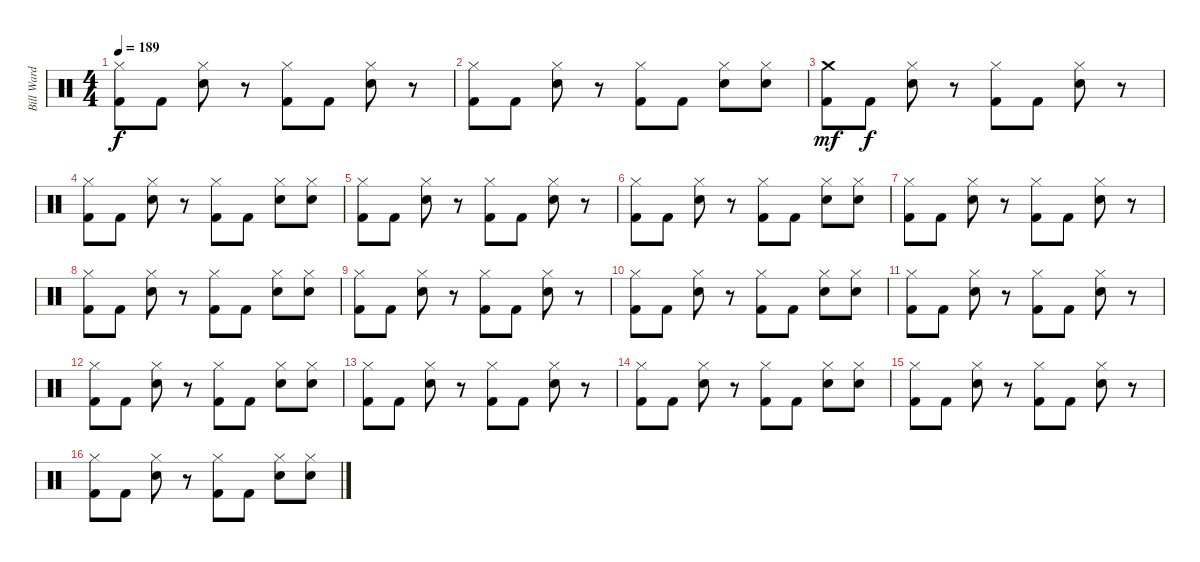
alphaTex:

\track ("Bill Ward" "Bill Ward") {instrument percussion}
\staff {score}
\articulation defaults
\ts (4 4)
\tempo 189
\clef neutral
\ks c
("Hi-Hat (closed)" "Kick (hit) 2").8{dy f} "Kick (hit) 2".8 ("Hi-Hat (closed)" "Electric Snare (hit)").8 r.8 ("Hi-Hat (closed)" "Kick (hit) 2").8 "Kick (hit) 2".8 ("Hi-Hat (closed)" "Electric Snare (hit)").8 r.8 |
("Hi-Hat (closed)" "Kick (hit) 2").8 "Kick (hit) 2".8 ("Hi-Hat (closed)" "Electric Snare (hit)").8 r.8 ("Hi-Hat (closed)" "Kick (hit) 2").8 "Kick (hit) 2".8 ("Hi-Hat (closed)" "Electric Snare (hit)").8 ("Electric Snare (hit)" "Hi-Hat (closed)").8 |
("Kick (hit) 2" "Crash medium (hit)").8{dy mf} "Kick (hit) 2".8{dy f} ("Hi-Hat (closed)" "Electric Snare (hit)").8 r.8 ("Hi-Hat (closed)" "Kick (hit) 2").8 "Kick (hit) 2".8 ("Hi-Hat (closed)" "Electric Snare (hit)").8 r.8 |
("Kick (hit) 2" "Hi-Hat (closed)").8 "Kick (hit) 2".8 ("Electric Snare (hit)" "Hi-Hat (closed)").8 r.8 ("Hi-Hat (closed)" "Kick (hit) 2").8 "Kick (hit) 2".8 ("Electric Snare (hit)" "Hi-Hat (closed)").8 ("Hi-Hat (closed)" "Electric Snare (hit)").8 |
("Hi-Hat (closed)" "Kick (hit) 2").8 "Kick (hit) 2".8 ("Hi-Hat (closed)" "Electric Snare (hit)").8 r.8 ("Hi-Hat (closed)" "Kick (hit) 2").8 "Kick (hit) 2".8 ("Hi-Hat (closed)" "Electric Snare (hit)").8 r.8 |
("Hi-Hat (closed)" "Kick (hit) 2").8 "Kick (hit) 2".8 ("Hi-Hat (closed)" "Electric Snare (hit)").8 r.8 ("Hi-Hat (closed)" "Kick (hit) 2").8 "Kick (hit) 2".8 ("Hi-Hat (closed)" "Electric Snare (hit)").8 ("Hi-Hat (closed)" "Electric Snare (hit)").8 |
("Hi-Hat (closed)" "Kick (hit) 2").8 "Kick (hit) 2".8 ("Electric Snare (hit)" "Hi-Hat (closed)").8 r.8 ("Hi-Hat (closed)" "Kick (hit) 2").8 "Kick (hit) 2".8 ("Electric Snare (hit)" "Hi-Hat (closed)").8 r.8 |
("Kick (hit) 2" "Hi-Hat (closed)").8 "Kick (hit) 2".8 ("Electric Snare (hit)" "Hi-Hat (closed)").8 r.8 ("Kick (hit) 2" "Hi-Hat (closed)").8 "Kick (hit) 2".8 ("Electric Snare (hit)" "Hi-Hat (closed)").8 ("Electric Snare (hit)" "Hi-Hat (closed)").8 |
("Hi-Hat (closed)" "Kick (hit) 2").8 "Kick (hit) 2".8 ("Electric Snare (hit)" "Hi-Hat (closed)").8 r.8 ("Kick (hit) 2" "Hi-Hat (closed)").8 "Kick (hit) 2".8 ("Electric Snare (hit)" "Hi-Hat (closed)").8 r.8 |
("Hi-Hat (closed)" "Kick (hit) 2").8 "Kick (hit) 2".8 ("Hi-Hat (closed)" "Electric Snare (hit)").8 r.8 ("Hi-Hat (closed)" "Kick (hit) 2").8 "Kick (hit) 2".8 ("Electric Snare (hit)" "Hi-Hat (closed)").8 ("Electric Snare (hit)" "Hi-Hat (closed)").8 |
("Hi-Hat (closed)" "Kick (hit) 2").8 "Kick (hit) 2".8 ("Hi-Hat (closed)" "Electric Snare (hit)").8 r.8 ("Kick (hit) 2" "Hi-Hat (closed)").8 "Kick (hit) 2".8 ("Hi-Hat (closed)" "Electric Snare (hit)").8 r.8 |
("Hi-Hat (closed)" "Kick (hit) 2").8 "Kick (hit) 2".8 ("Hi-Hat (closed)" "Electric Snare (hit)").8 r.8 ("Kick (hit) 2" "Hi-Hat (closed)").8 "Kick (hit) 2".8 ("Hi-Hat (closed)" "Electric Snare (hit)").8 ("Hi-Hat (closed)" "Electric Snare (hit)").8 |
("Kick (hit) 2" "Hi-Hat (closed)").8 "Kick (hit) 2".8 ("Hi-Hat (closed)" "Electric Snare (hit)").8 r.8 ("Kick (hit) 2" "Hi-Hat (closed)").8 "Kick (hit) 2".8 ("Hi-Hat (closed)" "Electric Snare (hit)").8 r.8 |
("Kick (hit) 2" "Hi-Hat (closed)").8 "Kick (hit) 2".8 ("Electric Snare (hit)" "Hi-Hat (closed)").8 r.8 ("Hi-Hat (closed)" "Kick (hit) 2").8 "Kick (hit) 2".8 ("Hi-Hat (closed)" "Electric Snare (hit)").8 ("Hi-Hat (closed)" "Electric Snare (hit)").8 |
("Hi-Hat (closed)" "Kick (hit) 2").8 "Kick (hit) 2".8 ("Hi-Hat (closed)" "Electric Snare (hit)").8 r.8 ("Hi-Hat (closed)" "Kick (hit) 2").8 "Kick (hit) 2".8 ("Electric Snare (hit)" "Hi-Hat (closed)").8 r.8 |
("Hi-Hat (closed)" "Kick (hit) 2").8 "Kick (hit) 2".8 ("Hi-Hat (closed)" "Electric Snare (hit)").8 r.8 ("Hi-Hat (closed)" "Kick (hit) 2").8 "Kick (hit) 2".8 ("Hi-Hat (closed)" "Electric Snare (hit)").8 ("Electric Snare (hit)" "Hi-Hat (closed)").8
